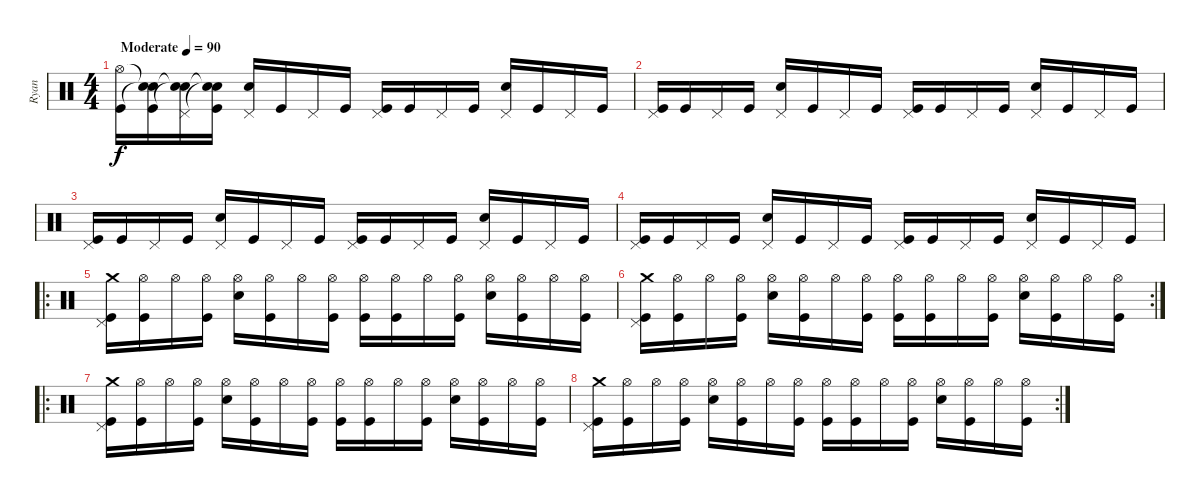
\track ("Ryan" "Ryan") {instrument percussion}
\staff {score}
\articulation defaults
\ts (4 4)
\tempo (90 "Moderate")
\clef neutral
\ks c
("Hi-Hat (open)" "Kick (hit)").16{dy f} ("Snare (hit)"{t} "Snare (hit)"{t} "Kick (hit)").16 ("Snare (hit)"{t} "Pedal Hi-Hat (hit)" "Snare (hit)"{t}).16 ("Snare (hit)"{t} "Snare (hit)"{t} "Kick (hit)").16 ("Pedal Hi-Hat (hit)" "Electric Snare (hit)").16 "Kick (hit)".16 "Pedal Hi-Hat (hit)".16 "Kick (hit)".16 ("Pedal Hi-Hat (hit)" "Kick (hit)").16 "Kick (hit)".16 "Pedal Hi-Hat (hit)".16 "Kick (hit)".16 ("Pedal Hi-Hat (hit)" "Electric Snare (hit)").16 "Kick (hit)".16 "Pedal Hi-Hat (hit)".16 "Kick (hit)".16 |
("Pedal Hi-Hat (hit)" "Kick (hit)").16 "Kick (hit)".16 "Pedal Hi-Hat (hit)".16 "Kick (hit)".16 ("Pedal Hi-Hat (hit)" "Electric Snare (hit)").16 "Kick (hit)".16 "Pedal Hi-Hat (hit)".16 "Kick (hit)".16 ("Pedal Hi-Hat (hit)" "Kick (hit)").16 "Kick (hit)".16 "Pedal Hi-Hat (hit)".16 "Kick (hit)".16 ("Pedal Hi-Hat (hit)" "Electric Snare (hit)").16 "Kick (hit)".16 "Pedal Hi-Hat (hit)".16 "Kick (hit)".16 |
("Pedal Hi-Hat (hit)" "Kick (hit)").16 "Kick (hit)".16 "Pedal Hi-Hat (hit)".16 "Kick (hit)".16 ("Pedal Hi-Hat (hit)" "Electric Snare (hit)").16 "Kick (hit)".16 "Pedal Hi-Hat (hit)".16 "Kick (hit)".16 ("Pedal Hi-Hat (hit)" "Kick (hit)").16 "Kick (hit)".16 "Pedal Hi-Hat (hit)".16 "Kick (hit)".16 ("Pedal Hi-Hat (hit)" "Electric Snare (hit)").16 "Kick (hit)".16 "Pedal Hi-Hat (hit)".16 "Kick (hit)".16 |
("Pedal Hi-Hat (hit)" "Kick (hit)").16 "Kick (hit)".16 "Pedal Hi-Hat (hit)".16 "Kick (hit)".16 ("Pedal Hi-Hat (hit)" "Electric Snare (hit)").16 "Kick (hit)".16 "Pedal Hi-Hat (hit)".16 "Kick (hit)".16 ("Pedal Hi-Hat (hit)" "Kick (hit)").16 "Kick (hit)".16 "Pedal Hi-Hat (hit)".16 "Kick (hit)".16 ("Pedal Hi-Hat (hit)" "Electric Snare (hit)").16 "Kick (hit)".16 "Pedal Hi-Hat (hit)".16 "Kick (hit)".16 |
\ro
("Crash medium (hit)" "Pedal Hi-Hat (hit)" "Kick (hit)").16 ("Hi-Hat (open)" "Kick (hit)").16 "Hi-Hat (open)".16 ("Hi-Hat (open)" "Kick (hit)").16 ("Hi-Hat (open)" "Electric Snare (hit)").16 ("Hi-Hat (open)" "Kick (hit)").16 "Hi-Hat (open)".16 ("Hi-Hat (open)" "Kick (hit)").16 ("Hi-Hat (open)" "Kick (hit)").16 ("Hi-Hat (open)" "Kick (hit)").16 "Hi-Hat (open)".16 ("Hi-Hat (open)" "Kick (hit)").16 ("Hi-Hat (open)" "Electric Snare (hit)").16 ("Hi-Hat (open)" "Kick (hit)").16 "Hi-Hat (open)".16 ("Hi-Hat (open)" "Kick (hit)").16 |
\rc 2
("Crash medium (hit)" "Pedal Hi-Hat (hit)" "Kick (hit)").16 ("Hi-Hat (open)" "Kick (hit)").16 "Hi-Hat (open)".16 ("Hi-Hat (open)" "Kick (hit)").16 ("Hi-Hat (open)" "Electric Snare (hit)").16 ("Hi-Hat (open)" "Kick (hit)").16 "Hi-Hat (open)".16 ("Hi-Hat (open)" "Kick (hit)").16 ("Hi-Hat (open)" "Kick (hit)").16 ("Hi-Hat (open)" "Kick (hit)").16 "Hi-Hat (open)".16 ("Hi-Hat (open)" "Kick (hit)").16 ("Hi-Hat (open)" "Electric Snare (hit)").16 ("Hi-Hat (open)" "Kick (hit)").16 "Hi-Hat (open)".16 ("Hi-Hat (open)" "Kick (hit)").16 |
\ro
("Crash medium (hit)" "Pedal Hi-Hat (hit)" "Kick (hit)").16 ("Hi-Hat (open)" "Kick (hit)").16 "Hi-Hat (open)".16 ("Hi-Hat (open)" "Kick (hit)").16 ("Hi-Hat (open)" "Electric Snare (hit)").16 ("Hi-Hat (open)" "Kick (hit)").16 "Hi-Hat (open)".16 ("Hi-Hat (open)" "Kick (hit)").16 ("Hi-Hat (open)" "Kick (hit)").16 ("Hi-Hat (open)" "Kick (hit)").16 "Hi-Hat (open)".16 ("Hi-Hat (open)" "Kick (hit)").16 ("Hi-Hat (open)" "Electric Snare (hit)").16 ("Hi-Hat (open)" "Kick (hit)").16 "Hi-Hat (open)".16 ("Hi-Hat (open)" "Kick (hit)").16 |
\rc 2
("Crash medium (hit)" "Pedal Hi-Hat (hit)" "Kick (hit)").16 ("Hi-Hat (open)" "Kick (hit)").16 "Hi-Hat (open)".16 ("Hi-Hat (open)" "Kick (hit)").16 ("Hi-Hat (open)" "Electric Snare (hit)").16 ("Hi-Hat (open)" "Kick (hit)").16 "Hi-Hat (open)".16 ("Hi-Hat (open)" "Kick (hit)").16 ("Hi-Hat (open)" "Kick (hit)").16 ("Hi-Hat (open)" "Kick (hit)").16 "Hi-Hat (open)".16 ("Hi-Hat (open)" "Kick (hit)").16 ("Hi-Hat (open)" "Electric Snare (hit)").16 ("Hi-Hat (open)" "Kick (hit)").16 "Hi-Hat (open)".16 ("Hi-Hat (open)" "Kick (hit)").16
